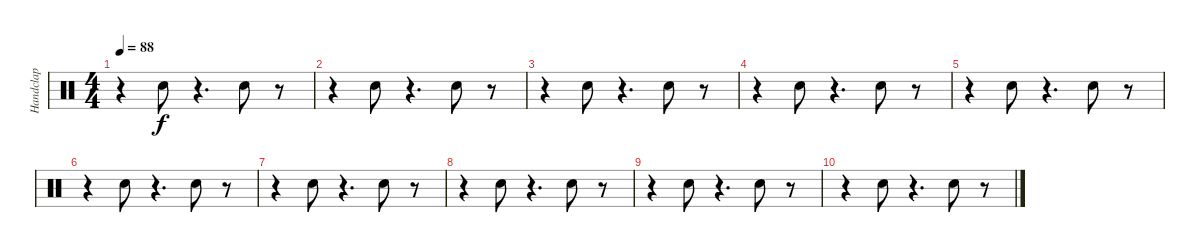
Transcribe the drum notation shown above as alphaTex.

\track ("Handclap" "Handclap") {instrument percussion}
\staff {score}
\articulation defaults
\ts (4 4)
\tempo 88
\clef neutral
\ks c
r.4{dy f} "Hand Clap (hit)".8 r.4{d} "Hand Clap (hit)".8 r.8 |
r.4 "Hand Clap (hit)".8 r.4{d} "Hand Clap (hit)".8 r.8 |
\section ("" "")
r.4{volume 7} "Hand Clap (hit)".8 r.4{d} "Hand Clap (hit)".8 r.8 |
r.4 "Hand Clap (hit)".8 r.4{d} "Hand Clap (hit)".8 r.8 |
r.4{volume 4} "Hand Clap (hit)".8 r.4{d} "Hand Clap (hit)".8 r.8 |
r.4 "Hand Clap (hit)".8 r.4{d} "Hand Clap (hit)".8 r.8 |
r.4{volume 2} "Hand Clap (hit)".8 r.4{d} "Hand Clap (hit)".8 r.8 |
r.4 "Hand Clap (hit)".8 r.4{d} "Hand Clap (hit)".8 r.8 |
r.4{volume 0} "Hand Clap (hit)".8 r.4{d} "Hand Clap (hit)".8 r.8 |
r.4 "Hand Clap (hit)".8 r.4{d} "Hand Clap (hit)".8 r.8
